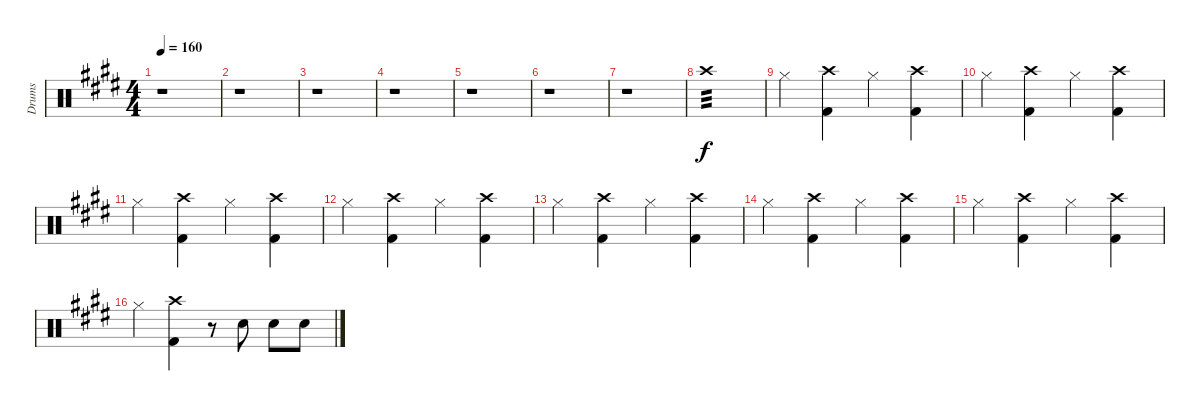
\track ("Drums" "Drums") {instrument percussion}
\staff {score}
\articulation defaults
\ts (4 4)
\tempo 160
\clef neutral
\ks e
r.1{dy f} |
r.1 |
r.1 |
r.1 |
r.1 |
r.1 |
r.1 |
"Crash high (hit)".1{tp 3} |
"Hi-Hat (closed)".4 ("Crash high (hit)" "Kick (hit) 2").4 "Hi-Hat (closed)".4 ("Crash high (hit)" "Kick (hit) 2").4 |
"Hi-Hat (closed)".4 ("Crash high (hit)" "Kick (hit) 2").4 "Hi-Hat (closed)".4 ("Crash high (hit)" "Kick (hit) 2").4 |
"Hi-Hat (closed)".4 ("Crash high (hit)" "Kick (hit) 2").4 "Hi-Hat (closed)".4 ("Crash high (hit)" "Kick (hit) 2").4 |
"Hi-Hat (closed)".4 ("Crash high (hit)" "Kick (hit) 2").4 "Hi-Hat (closed)".4 ("Crash high (hit)" "Kick (hit) 2").4 |
"Hi-Hat (closed)".4 ("Crash high (hit)" "Kick (hit) 2").4 "Hi-Hat (closed)".4 ("Crash high (hit)" "Kick (hit) 2").4 |
"Hi-Hat (closed)".4 ("Crash high (hit)" "Kick (hit) 2").4 "Hi-Hat (closed)".4 ("Crash high (hit)" "Kick (hit) 2").4 |
"Hi-Hat (closed)".4 ("Crash high (hit)" "Kick (hit) 2").4 "Hi-Hat (closed)".4 ("Crash high (hit)" "Kick (hit) 2").4 |
"Hi-Hat (closed)".4 ("Crash high (hit)" "Kick (hit) 2").4 r.8 "Electric Snare (hit)".8 "Electric Snare (hit)".8 "Electric Snare (hit)".8
